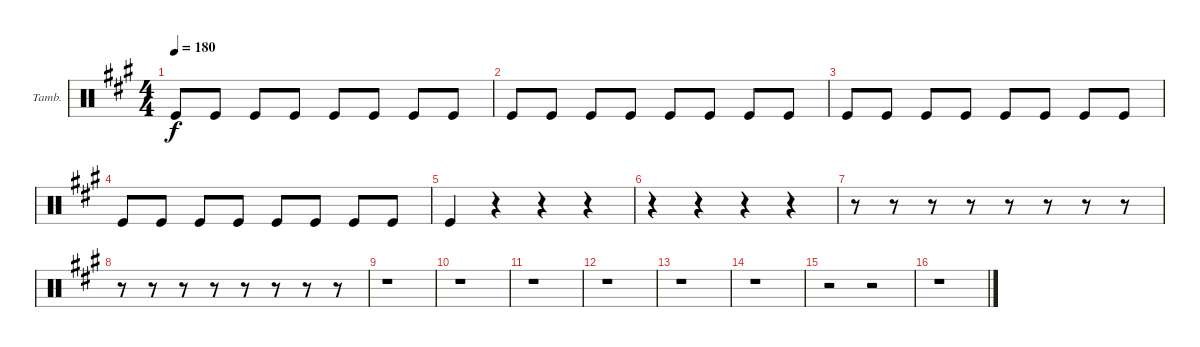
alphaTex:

\bracketExtendMode groupsimilarinstruments
\firstSystemTrackNameOrientation horizontal
\otherSystemsTrackNameOrientation horizontal
\track ("Tambourine" "Tamb.") {instrument percussion}
\staff {score}
\articulation defaults
\ts (4 4)
\tempo 180
\clef neutral
\ks a "Kick (hit)".8{dy f} "Kick (hit)".8 "Kick (hit)".8 "Kick (hit)".8 "Kick (hit)".8 "Kick (hit)".8 "Kick (hit)".8 "Kick (hit)".8
|
"Kick (hit)".8 "Kick (hit)".8 "Kick (hit)".8 "Kick (hit)".8 "Kick (hit)".8 "Kick (hit)".8 "Kick (hit)".8 "Kick (hit)".8 |
"Kick (hit)".8 "Kick (hit)".8 "Kick (hit)".8 "Kick (hit)".8 "Kick (hit)".8 "Kick (hit)".8 "Kick (hit)".8 "Kick (hit)".8 |
"Kick (hit)".8 "Kick (hit)".8 "Kick (hit)".8 "Kick (hit)".8 "Kick (hit)".8 "Kick (hit)".8 "Kick (hit)".8 "Kick (hit)".8 |
"Kick (hit)".4 r.4 r.4 r.4 |
r.4 r.4 r.4 r.4 |
r.8 r.8 r.8 r.8 r.8 r.8 r.8 r.8 |
r.8 r.8 r.8 r.8 r.8 r.8 r.8 r.8 |
r.1 |
r.1 |
r.1 |
r.1 |
r.1 |
r.1 |
r.2 r.2 |
r.1
